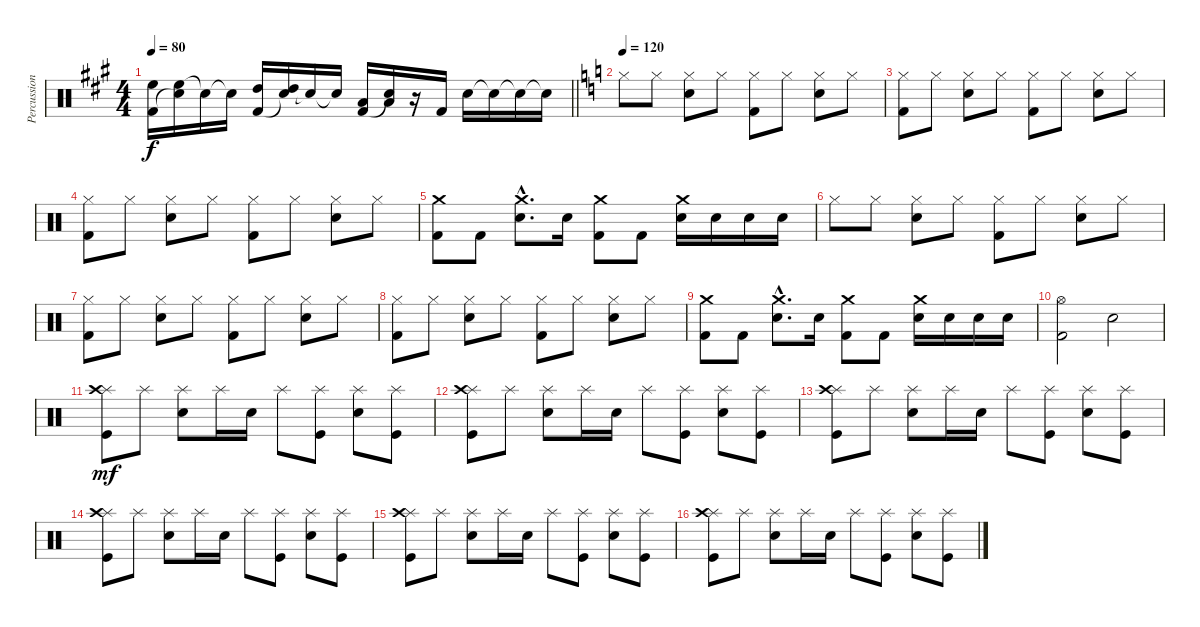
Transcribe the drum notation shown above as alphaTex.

\track ("Percussions" "Percussion") {instrument percussion}
\staff {score}
\articulation defaults
\ts (4 4)
\tempo 80
\clef neutral
\barLineRight lightlight
\ks a
("High Floor Tom (hit)" "Kick (hit) 2").16{dy f} ("High Floor Tom (hit)" "Snare (hit)"{t}).16 "Snare (hit)"{t}.16 "Snare (hit)"{t}.16 ("High Tom (hit)" "Kick (hit) 2").16 ("High Tom (hit)" "Snare (hit)"{t}).16 "Snare (hit)"{t}.16 "Snare (hit)"{t}.16 ("Low Tom (hit)" "Kick (hit) 2").16 ("Low Tom (hit)" "Snare (hit)"{t}).16 r.16 "Kick (hit) 2".16 "Snare (hit) 2".16 "Snare (hit)"{t}.16 "Snare (hit)"{t}.16 "Snare (hit)"{t}.16 |
\tempo 120
\ks c "Hi-Hat (closed)".8 "Hi-Hat (closed)".8
("Snare (hit) 2" "Hi-Hat (closed)").8 "Hi-Hat (closed)".8 ("Kick (hit) 2" "Hi-Hat (closed)").8 "Hi-Hat (closed)".8 ("Snare (hit) 2" "Hi-Hat (closed)").8 "Hi-Hat (closed)".8 |
("Kick (hit) 2" "Hi-Hat (closed)").8 "Hi-Hat (closed)".8 ("Snare (hit) 2" "Hi-Hat (closed)").8 "Hi-Hat (closed)".8 ("Kick (hit) 2" "Hi-Hat (closed)").8 "Hi-Hat (closed)".8 ("Snare (hit) 2" "Hi-Hat (closed)").8 "Hi-Hat (closed)".8 |
("Kick (hit) 2" "Hi-Hat (closed)").8 "Hi-Hat (closed)".8 ("Snare (hit) 2" "Hi-Hat (closed)").8 "Hi-Hat (closed)".8 ("Kick (hit) 2" "Hi-Hat (closed)").8 "Hi-Hat (closed)".8 ("Snare (hit) 2" "Hi-Hat (closed)").8 "Hi-Hat (closed)".8 |
("Crash medium (hit)" "Kick (hit) 2").8 "Kick (hit) 2".8 ("Crash medium (hit)"{hac} "Snare (hit) 2"{hac}).8{d} "Snare (hit) 2".16 ("Crash medium (hit)" "Kick (hit) 2").8 "Kick (hit) 2".8 ("Crash medium (hit)" "Snare (hit) 2").16 "Snare (hit) 2".16 "Snare (hit) 2".16 "Snare (hit) 2".16 |
"Hi-Hat (closed)".8 "Hi-Hat (closed)".8 ("Snare (hit) 2" "Hi-Hat (closed)").8 "Hi-Hat (closed)".8 ("Kick (hit) 2" "Hi-Hat (closed)").8 "Hi-Hat (closed)".8 ("Snare (hit) 2" "Hi-Hat (closed)").8 "Hi-Hat (closed)".8 |
("Kick (hit) 2" "Hi-Hat (closed)").8 "Hi-Hat (closed)".8 ("Snare (hit) 2" "Hi-Hat (closed)").8 "Hi-Hat (closed)".8 ("Kick (hit) 2" "Hi-Hat (closed)").8 "Hi-Hat (closed)".8 ("Snare (hit) 2" "Hi-Hat (closed)").8 "Hi-Hat (closed)".8 |
("Kick (hit) 2" "Hi-Hat (closed)").8 "Hi-Hat (closed)".8 ("Snare (hit) 2" "Hi-Hat (closed)").8 "Hi-Hat (closed)".8 ("Kick (hit) 2" "Hi-Hat (closed)").8 "Hi-Hat (closed)".8 ("Snare (hit) 2" "Hi-Hat (closed)").8 "Hi-Hat (closed)".8 |
("Crash medium (hit)" "Kick (hit) 2").8 "Kick (hit) 2".8 ("Crash medium (hit)"{hac} "Snare (hit) 2"{hac}).8{d} "Snare (hit) 2".16 ("Crash medium (hit)" "Kick (hit) 2").8 "Kick (hit) 2".8 ("Crash medium (hit)" "Snare (hit) 2").16 "Snare (hit) 2".16 "Snare (hit) 2".16 "Snare (hit) 2".16 |
("Hi-Hat (open)" "Kick (hit) 2").2 "Snare (hit) 2".2 |
("Splash (hit)" "Crash high (hit)" "Kick (hit)").8{dy mf} "Splash (hit)".8 ("Electric Snare (hit)" "Splash (hit)").8 "Splash (hit)".16 "Electric Snare (hit)".16 "Splash (hit)".8 ("Kick (hit)" "Splash (hit)").8 ("Electric Snare (hit)" "Splash (hit)").8 ("Kick (hit)" "Splash (hit)").8 |
("Splash (hit)" "Crash high (hit)" "Kick (hit)").8 "Splash (hit)".8 ("Electric Snare (hit)" "Splash (hit)").8 "Splash (hit)".16 "Electric Snare (hit)".16 "Splash (hit)".8 ("Kick (hit)" "Splash (hit)").8 ("Electric Snare (hit)" "Splash (hit)").8 ("Kick (hit)" "Splash (hit)").8 |
("Splash (hit)" "Crash high (hit)" "Kick (hit)").8 "Splash (hit)".8 ("Electric Snare (hit)" "Splash (hit)").8 "Splash (hit)".16 "Electric Snare (hit)".16 "Splash (hit)".8 ("Kick (hit)" "Splash (hit)").8 ("Electric Snare (hit)" "Splash (hit)").8 ("Kick (hit)" "Splash (hit)").8 |
("Splash (hit)" "Crash high (hit)" "Kick (hit)").8 "Splash (hit)".8 ("Electric Snare (hit)" "Splash (hit)").8 "Splash (hit)".16 "Electric Snare (hit)".16 "Splash (hit)".8 ("Kick (hit)" "Splash (hit)").8 ("Electric Snare (hit)" "Splash (hit)").8 ("Kick (hit)" "Splash (hit)").8 |
("Splash (hit)" "Crash high (hit)" "Kick (hit)").8 "Splash (hit)".8 ("Electric Snare (hit)" "Splash (hit)").8 "Splash (hit)".16 "Electric Snare (hit)".16 "Splash (hit)".8 ("Kick (hit)" "Splash (hit)").8 ("Electric Snare (hit)" "Splash (hit)").8 ("Kick (hit)" "Splash (hit)").8 |
("Splash (hit)" "Crash high (hit)" "Kick (hit)").8 "Splash (hit)".8 ("Electric Snare (hit)" "Splash (hit)").8 "Splash (hit)".16 "Electric Snare (hit)".16 "Splash (hit)".8 ("Kick (hit)" "Splash (hit)").8 ("Electric Snare (hit)" "Splash (hit)").8 ("Kick (hit)" "Splash (hit)").8
